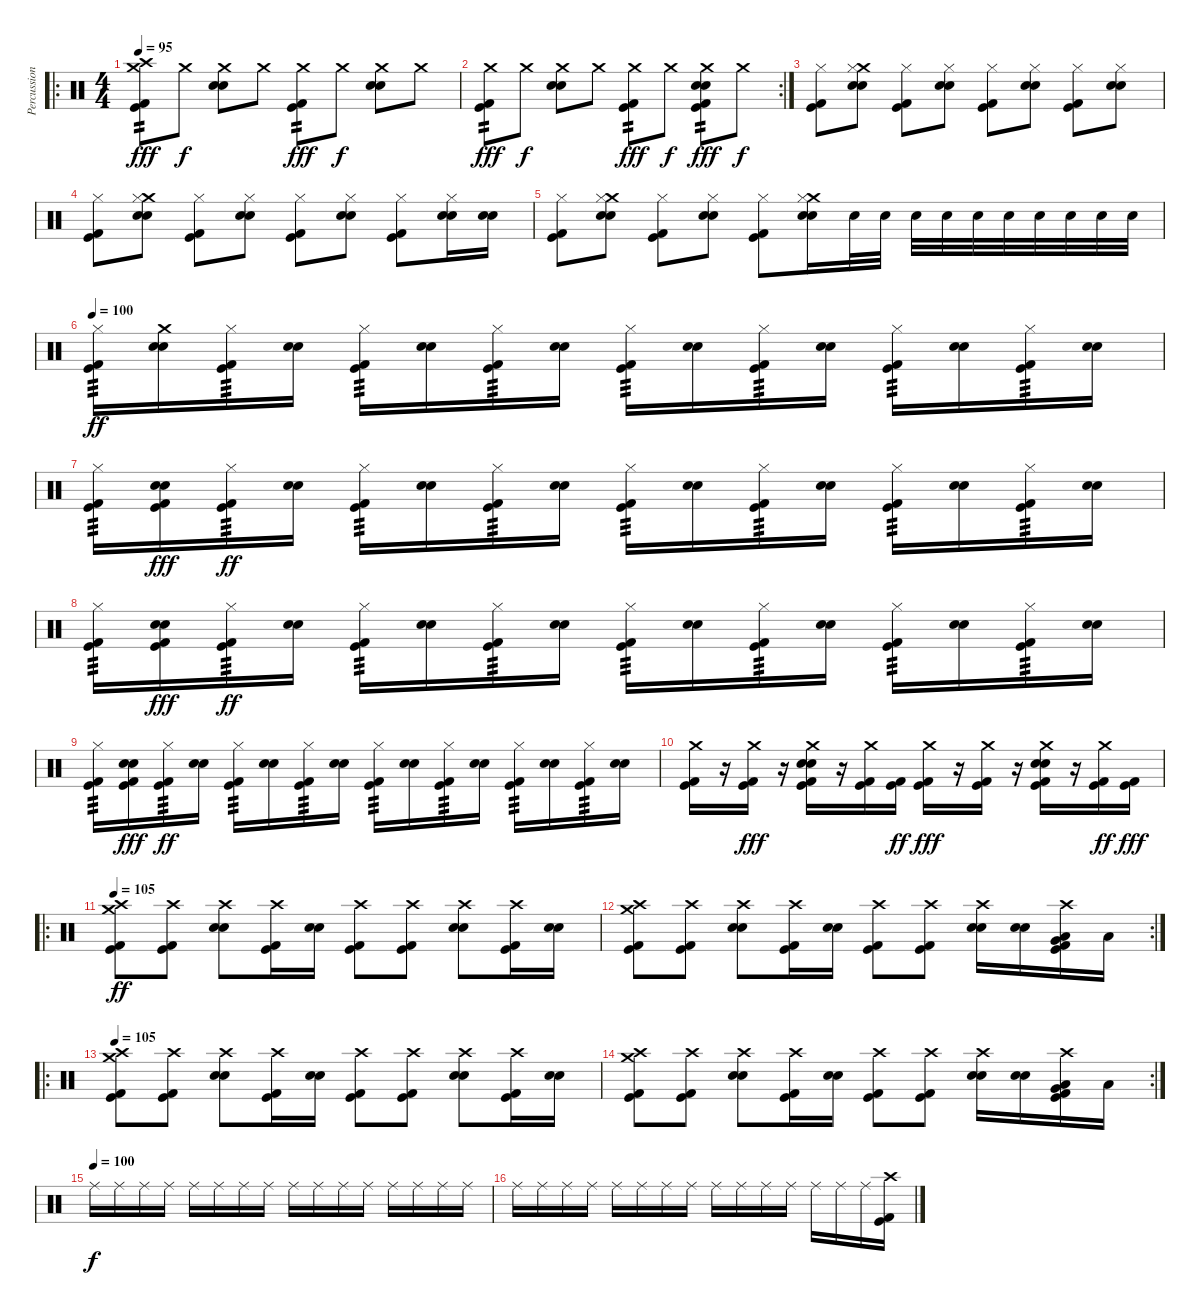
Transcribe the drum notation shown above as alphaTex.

\track ("Percussion" "Percussion") {instrument percussion}
\staff {score}
\articulation defaults
\ro
\ts (4 4)
\tempo 95
\clef neutral
\ks c
("Crash high (hit)" "Crash medium (hit)" "Kick (hit)" "Kick (hit) 2").8{tp 2 dy fff} "Crash medium (hit)".8{dy f} ("Crash medium (hit)" "Snare (hit) 2" "Electric Snare (hit)").8 "Crash medium (hit)".8 ("Crash medium (hit)" "Kick (hit)" "Kick (hit) 2").8{tp 2 dy fff} "Crash medium (hit)".8{dy f} ("Crash medium (hit)" "Snare (hit) 2" "Electric Snare (hit)").8 "Crash medium (hit)".8 |
\rc 2
("Crash medium (hit)" "Kick (hit)" "Kick (hit) 2").8{tp 2 dy fff} "Crash medium (hit)".8{dy f} ("Crash medium (hit)" "Snare (hit) 2" "Electric Snare (hit)").8 "Crash medium (hit)".8 ("Crash medium (hit)" "Kick (hit)" "Kick (hit) 2").8{tp 2 dy fff} "Crash medium (hit)".8{dy f} ("Crash medium (hit)" "Snare (hit) 2" "Electric Snare (hit)" "Kick (hit)" "Kick (hit) 2").8{tp 2 dy fff} "Crash medium (hit)".8{dy f} |
("Hi-Hat (closed)" "Kick (hit)" "Kick (hit) 2").8 ("Crash medium (hit)" "Hi-Hat (closed)" "Snare (hit) 2" "Electric Snare (hit)").8 ("Hi-Hat (closed)" "Kick (hit)" "Kick (hit) 2").8 ("Hi-Hat (closed)" "Snare (hit) 2" "Electric Snare (hit)").8 ("Hi-Hat (closed)" "Kick (hit)" "Kick (hit) 2").8 ("Hi-Hat (closed)" "Snare (hit) 2" "Electric Snare (hit)").8 ("Hi-Hat (closed)" "Kick (hit)" "Kick (hit) 2").8 ("Hi-Hat (closed)" "Snare (hit) 2" "Electric Snare (hit)").8 |
("Hi-Hat (closed)" "Kick (hit)" "Kick (hit) 2").8 ("Crash medium (hit)" "Hi-Hat (closed)" "Snare (hit) 2" "Electric Snare (hit)").8 ("Hi-Hat (closed)" "Kick (hit)" "Kick (hit) 2").8 ("Hi-Hat (closed)" "Snare (hit) 2" "Electric Snare (hit)").8 ("Hi-Hat (closed)" "Kick (hit)" "Kick (hit) 2").8 ("Hi-Hat (closed)" "Snare (hit) 2" "Electric Snare (hit)").8 ("Hi-Hat (closed)" "Kick (hit)" "Kick (hit) 2").8 ("Hi-Hat (closed)" "Snare (hit) 2" "Electric Snare (hit)").16 ("Snare (hit) 2" "Electric Snare (hit)").16 |
("Hi-Hat (closed)" "Kick (hit)" "Kick (hit) 2").8 ("Crash medium (hit)" "Hi-Hat (closed)" "Snare (hit) 2" "Electric Snare (hit)").8 ("Hi-Hat (closed)" "Kick (hit)" "Kick (hit) 2").8 ("Hi-Hat (closed)" "Snare (hit) 2" "Electric Snare (hit)").8 ("Hi-Hat (closed)" "Kick (hit)" "Kick (hit) 2").8 ("Crash medium (hit)" "Hi-Hat (closed)" "Snare (hit) 2" "Electric Snare (hit)").16 "Electric Snare (hit)".32 "Electric Snare (hit)".32 "Electric Snare (hit)".32 "Electric Snare (hit)".32 "Electric Snare (hit)".32 "Electric Snare (hit)".32 "Electric Snare (hit)".32 "Electric Snare (hit)".32 "Electric Snare (hit)".32 "Electric Snare (hit)".32 |
\tempo 100
("Hi-Hat (closed)" "Kick (hit)" "Kick (hit) 2").16{tp 3 dy ff} ("Crash medium (hit)" "Snare (hit) 2" "Electric Snare (hit)").16 ("Hi-Hat (closed)" "Kick (hit)" "Kick (hit) 2").16{tp 3} ("Snare (hit) 2" "Electric Snare (hit)").16 ("Hi-Hat (closed)" "Kick (hit)" "Kick (hit) 2").16{tp 3} ("Snare (hit) 2" "Electric Snare (hit)").16 ("Hi-Hat (closed)" "Kick (hit)" "Kick (hit) 2").16{tp 3} ("Snare (hit) 2" "Electric Snare (hit)").16 ("Hi-Hat (closed)" "Kick (hit)" "Kick (hit) 2").16{tp 3} ("Snare (hit) 2" "Electric Snare (hit)").16 ("Hi-Hat (closed)" "Kick (hit)" "Kick (hit) 2").16{tp 3} ("Snare (hit) 2" "Electric Snare (hit)").16 ("Hi-Hat (closed)" "Kick (hit)" "Kick (hit) 2").16{tp 3} ("Snare (hit) 2" "Electric Snare (hit)").16 ("Hi-Hat (closed)" "Kick (hit)" "Kick (hit) 2").16{tp 3} ("Snare (hit) 2" "Electric Snare (hit)").16 |
("Hi-Hat (closed)" "Kick (hit)" "Kick (hit) 2").16{tp 3} ("Snare (hit) 2" "Electric Snare (hit)" "Kick (hit)" "Kick (hit) 2").16{dy fff} ("Hi-Hat (closed)" "Kick (hit)" "Kick (hit) 2").16{tp 3 dy ff} ("Snare (hit) 2" "Electric Snare (hit)").16 ("Hi-Hat (closed)" "Kick (hit)" "Kick (hit) 2").16{tp 3} ("Snare (hit) 2" "Electric Snare (hit)").16 ("Hi-Hat (closed)" "Kick (hit)" "Kick (hit) 2").16{tp 3} ("Snare (hit) 2" "Electric Snare (hit)").16 ("Hi-Hat (closed)" "Kick (hit)" "Kick (hit) 2").16{tp 3} ("Snare (hit) 2" "Electric Snare (hit)").16 ("Hi-Hat (closed)" "Kick (hit)" "Kick (hit) 2").16{tp 3} ("Snare (hit) 2" "Electric Snare (hit)").16 ("Hi-Hat (closed)" "Kick (hit)" "Kick (hit) 2").16{tp 3} ("Snare (hit) 2" "Electric Snare (hit)").16 ("Hi-Hat (closed)" "Kick (hit)" "Kick (hit) 2").16{tp 3} ("Snare (hit) 2" "Electric Snare (hit)").16 |
("Hi-Hat (closed)" "Kick (hit)" "Kick (hit) 2").16{tp 3} ("Snare (hit) 2" "Electric Snare (hit)" "Kick (hit)" "Kick (hit) 2").16{dy fff} ("Hi-Hat (closed)" "Kick (hit)" "Kick (hit) 2").16{tp 3 dy ff} ("Snare (hit) 2" "Electric Snare (hit)").16 ("Hi-Hat (closed)" "Kick (hit)" "Kick (hit) 2").16{tp 3} ("Snare (hit) 2" "Electric Snare (hit)").16 ("Hi-Hat (closed)" "Kick (hit)" "Kick (hit) 2").16{tp 3} ("Snare (hit) 2" "Electric Snare (hit)").16 ("Hi-Hat (closed)" "Kick (hit)" "Kick (hit) 2").16{tp 3} ("Snare (hit) 2" "Electric Snare (hit)").16 ("Hi-Hat (closed)" "Kick (hit)" "Kick (hit) 2").16{tp 3} ("Snare (hit) 2" "Electric Snare (hit)").16 ("Hi-Hat (closed)" "Kick (hit)" "Kick (hit) 2").16{tp 3} ("Snare (hit) 2" "Electric Snare (hit)").16 ("Hi-Hat (closed)" "Kick (hit)" "Kick (hit) 2").16{tp 3} ("Snare (hit) 2" "Electric Snare (hit)").16 |
("Hi-Hat (closed)" "Kick (hit)" "Kick (hit) 2").16{tp 3} ("Snare (hit) 2" "Electric Snare (hit)" "Kick (hit)" "Kick (hit) 2").16{dy fff} ("Hi-Hat (closed)" "Kick (hit)" "Kick (hit) 2").16{tp 3 dy ff} ("Snare (hit) 2" "Electric Snare (hit)").16 ("Hi-Hat (closed)" "Kick (hit)" "Kick (hit) 2").16{tp 3} ("Snare (hit) 2" "Electric Snare (hit)").16 ("Hi-Hat (closed)" "Kick (hit)" "Kick (hit) 2").16{tp 3} ("Snare (hit) 2" "Electric Snare (hit)").16 ("Hi-Hat (closed)" "Kick (hit)" "Kick (hit) 2").16{tp 3} ("Snare (hit) 2" "Electric Snare (hit)").16 ("Hi-Hat (closed)" "Kick (hit)" "Kick (hit) 2").16{tp 3} ("Snare (hit) 2" "Electric Snare (hit)").16 ("Hi-Hat (closed)" "Kick (hit)" "Kick (hit) 2").16{tp 3} ("Snare (hit) 2" "Electric Snare (hit)").16 ("Hi-Hat (closed)" "Kick (hit)" "Kick (hit) 2").16{tp 3} ("Snare (hit) 2" "Electric Snare (hit)").16 |
("Crash medium (hit)" "Kick (hit)" "Kick (hit) 2").16 r.16 ("Crash medium (hit)" "Kick (hit)" "Kick (hit) 2").16{dy fff} r.16 ("Crash medium (hit)" "Snare (hit) 2" "Electric Snare (hit)" "Kick (hit)" "Kick (hit) 2").16 r.16 ("Crash medium (hit)" "Kick (hit)" "Kick (hit) 2").16 ("Kick (hit)" "Kick (hit) 2").16{dy ff} ("Crash medium (hit)" "Kick (hit)" "Kick (hit) 2").16{dy fff} r.16 ("Crash medium (hit)" "Kick (hit)" "Kick (hit) 2").16 r.16 ("Crash medium (hit)" "Snare (hit) 2" "Electric Snare (hit)" "Kick (hit)" "Kick (hit) 2").16 r.16 ("Crash medium (hit)" "Kick (hit)" "Kick (hit) 2").16{dy ff} ("Kick (hit)" "Kick (hit) 2").16{dy fff} |
\ro
\tempo 105
("Crash high (hit)" "Crash medium (hit)" "Kick (hit)" "Kick (hit) 2").8{dy ff} ("Crash high (hit)" "Kick (hit)" "Kick (hit) 2").8 ("Crash high (hit)" "Snare (hit) 2" "Electric Snare (hit)").8 ("Crash high (hit)" "Kick (hit)" "Kick (hit) 2").16 ("Snare (hit) 2" "Electric Snare (hit)").16 ("Crash high (hit)" "Kick (hit)" "Kick (hit) 2").8 ("Crash high (hit)" "Kick (hit)" "Kick (hit) 2").8 ("Crash high (hit)" "Snare (hit) 2" "Electric Snare (hit)").8 ("Crash high (hit)" "Kick (hit)" "Kick (hit) 2").16 ("Snare (hit) 2" "Electric Snare (hit)").16 |
\rc 2
("Crash high (hit)" "Crash medium (hit)" "Kick (hit)" "Kick (hit) 2").8 ("Crash high (hit)" "Kick (hit)" "Kick (hit) 2").8 ("Crash high (hit)" "Snare (hit) 2" "Electric Snare (hit)").8 ("Crash high (hit)" "Kick (hit)" "Kick (hit) 2").16 ("Snare (hit) 2" "Electric Snare (hit)").16 ("Crash high (hit)" "Kick (hit)" "Kick (hit) 2").8 ("Crash high (hit)" "Kick (hit)" "Kick (hit) 2").8 ("Crash high (hit)" "Snare (hit) 2" "Electric Snare (hit)").16 ("Snare (hit) 2" "Electric Snare (hit)").16 ("Crash high (hit)" "Low Floor Tom (hit)" "Very Low Tom (hit)" "Kick (hit)" "Kick (hit) 2").16 "Low Floor Tom (hit)".16 |
\ro
\tempo 105
("Crash high (hit)" "Crash medium (hit)" "Kick (hit)" "Kick (hit) 2").8 ("Crash high (hit)" "Kick (hit)" "Kick (hit) 2").8 ("Crash high (hit)" "Snare (hit) 2" "Electric Snare (hit)").8 ("Crash high (hit)" "Kick (hit)" "Kick (hit) 2").16 ("Snare (hit) 2" "Electric Snare (hit)").16 ("Crash high (hit)" "Kick (hit)" "Kick (hit) 2").8 ("Crash high (hit)" "Kick (hit)" "Kick (hit) 2").8 ("Crash high (hit)" "Snare (hit) 2" "Electric Snare (hit)").8 ("Crash high (hit)" "Kick (hit)" "Kick (hit) 2").16 ("Snare (hit) 2" "Electric Snare (hit)").16 |
\rc 2
("Crash high (hit)" "Crash medium (hit)" "Kick (hit)" "Kick (hit) 2").8 ("Crash high (hit)" "Kick (hit)" "Kick (hit) 2").8 ("Crash high (hit)" "Snare (hit) 2" "Electric Snare (hit)").8 ("Crash high (hit)" "Kick (hit)" "Kick (hit) 2").16 ("Snare (hit) 2" "Electric Snare (hit)").16 ("Crash high (hit)" "Kick (hit)" "Kick (hit) 2").8 ("Crash high (hit)" "Kick (hit)" "Kick (hit) 2").8 ("Crash high (hit)" "Snare (hit) 2" "Electric Snare (hit)").16 ("Snare (hit) 2" "Electric Snare (hit)").16 ("Crash high (hit)" "Low Floor Tom (hit)" "Very Low Tom (hit)" "Kick (hit)" "Kick (hit) 2").16 "Low Floor Tom (hit)".16 |
\tempo (100)
"Ride (middle)".16{dy f} "Ride (middle)".16 "Ride (middle)".16 "Ride (middle)".16 "Ride (middle)".16 "Ride (middle)".16 "Ride (middle)".16 "Ride (middle)".16 "Ride (middle)".16 "Ride (middle)".16 "Ride (middle)".16 "Ride (middle)".16 "Ride (middle)".16 "Ride (middle)".16 "Ride (middle)".16 "Ride (middle)".16 |
"Ride (middle)".16 "Ride (middle)".16 "Ride (middle)".16 "Ride (middle)".16 "Ride (middle)".16 "Ride (middle)".16 "Ride (middle)".16 "Ride (middle)".16 "Ride (middle)".16 "Ride (middle)".16 "Ride (middle)".16 "Ride (middle)".16 "Ride (middle)".16 "Ride (middle)".16 "Ride (middle)".16 ("Crash high (hit)" "Kick (hit)" "Kick (hit) 2").16
